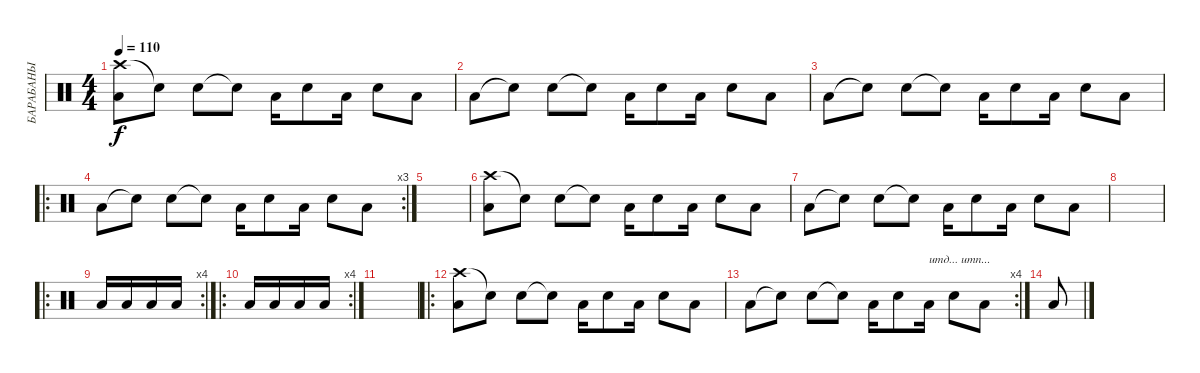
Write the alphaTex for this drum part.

\track ("БАРАБАНЫ" "БАРАБАНЫ") {instrument percussion}
\staff {score}
\articulation defaults
\ts (4 4)
\tempo 110
\clef neutral
\ks c
("Crash high (hit)" "Low Floor Tom (hit)").8{dy f} "Snare (hit)"{t}.8 "Electric Snare (hit)".8 "Snare (hit)"{t}.8 "Low Floor Tom (hit)".16 "Electric Snare (hit)".8 "Low Floor Tom (hit)".16 "Electric Snare (hit)".8 "Low Floor Tom (hit)".8 |
"Low Floor Tom (hit)".8 "Snare (hit)"{t}.8 "Electric Snare (hit)".8 "Snare (hit)"{t}.8 "Low Floor Tom (hit)".16 "Electric Snare (hit)".8 "Low Floor Tom (hit)".16 "Electric Snare (hit)".8 "Low Floor Tom (hit)".8 |
"Low Floor Tom (hit)".8 "Snare (hit)"{t}.8 "Electric Snare (hit)".8 "Snare (hit)"{t}.8 "Low Floor Tom (hit)".16 "Electric Snare (hit)".8 "Low Floor Tom (hit)".16 "Electric Snare (hit)".8 "Low Floor Tom (hit)".8 |
\ro
\rc 3 "Low Floor Tom (hit)".8 "Snare (hit)"{t}.8 "Electric Snare (hit)".8 "Snare (hit)"{t}.8 "Low Floor Tom (hit)".16 "Electric Snare (hit)".8 "Low Floor Tom (hit)".16 "Electric Snare (hit)".8 "Low Floor Tom (hit)".8
|
|
("Crash high (hit)" "Low Floor Tom (hit)").8 "Snare (hit)"{t}.8 "Electric Snare (hit)".8 "Snare (hit)"{t}.8 "Low Floor Tom (hit)".16 "Electric Snare (hit)".8 "Low Floor Tom (hit)".16 "Electric Snare (hit)".8 "Low Floor Tom (hit)".8 |
"Low Floor Tom (hit)".8 "Snare (hit)"{t}.8 "Electric Snare (hit)".8 "Snare (hit)"{t}.8 "Low Floor Tom (hit)".16 "Electric Snare (hit)".8 "Low Floor Tom (hit)".16 "Electric Snare (hit)".8 "Low Floor Tom (hit)".8 |
|
\ro
\rc 4 "Low Floor Tom (hit)".16 "Low Floor Tom (hit)".16 "Low Floor Tom (hit)".16 "Low Floor Tom (hit)".16
|
\ro
\rc 4 "Low Floor Tom (hit)".16 "Low Floor Tom (hit)".16 "Low Floor Tom (hit)".16 "Low Floor Tom (hit)".16
|
|
\ro
("Crash high (hit)" "Low Floor Tom (hit)").8 "Snare (hit)"{t}.8 "Electric Snare (hit)".8 "Snare (hit)"{t}.8 "Low Floor Tom (hit)".16 "Electric Snare (hit)".8 "Low Floor Tom (hit)".16 "Electric Snare (hit)".8 "Low Floor Tom (hit)".8 |
\rc 4 "Low Floor Tom (hit)".8 "Snare (hit)"{t}.8 "Electric Snare (hit)".8 "Snare (hit)"{t}.8 "Low Floor Tom (hit)".16 "Electric Snare (hit)".8 "Low Floor Tom (hit)".16{txt "итд... итп..."} "Electric Snare (hit)".8 "Low Floor Tom (hit)".8
|
"Low Floor Tom (hit)".8
